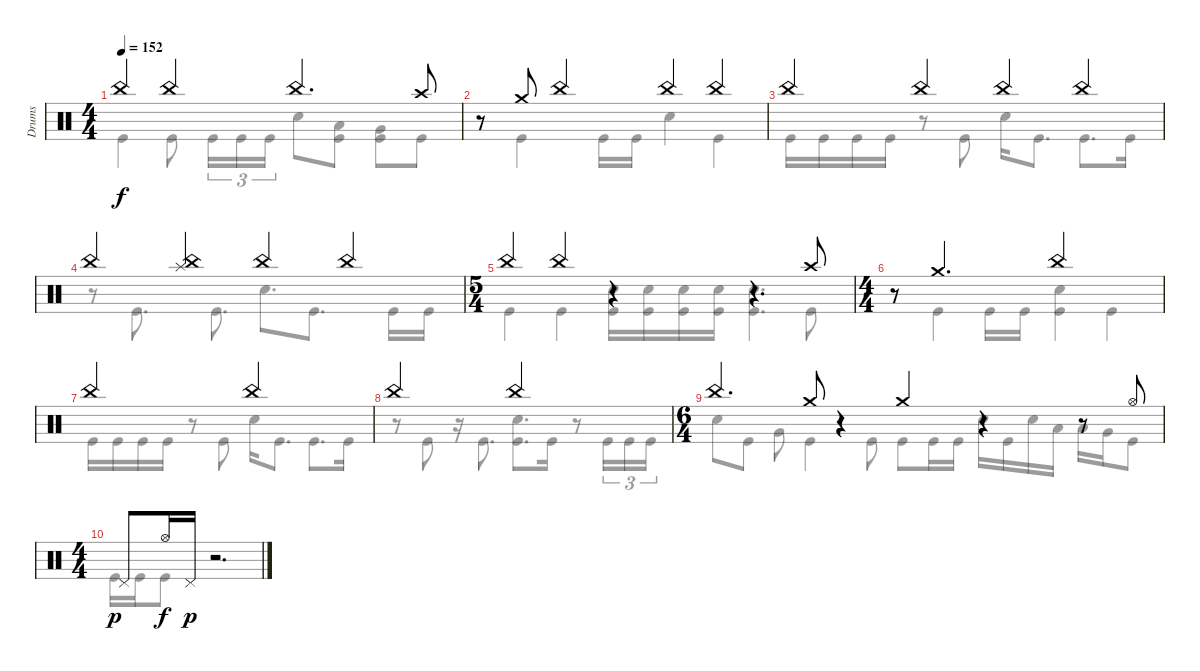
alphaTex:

\track ("Drums" "Drums") {instrument percussion}
\staff {score}
\articulation defaults
\voice
\ts (4 4)
\tempo 152
\clef neutral
\ks c "China (hit)".4{dy f} "China (hit)".4 "China (hit)".4{d} "Crash high (hit)".8
|
r.8 "Crash medium (hit)".8 "China (hit)".4 "China (hit)".4 "China (hit)".4 |
"China (hit)".4 "China (hit)".4 "China (hit)".4 "China (hit)".4 |
"China (hit)".4 ("China (hit)" "Splash (hit)").4 "China (hit)".4 "China (hit)".4 |
\ts (5 4)
"China (hit)".4 "China (hit)".4 r.4 r.4{d} "Crash high (hit)".8 |
\ts (4 4)
r.8 "Crash medium (hit)".4{d} "China (hit)".2 |
"China (hit)".2 "China (hit)".2 |
"China (hit)".2 "China (hit)".2 |
\ts (6 4)
"China (hit)".4{d} "Crash medium (hit)".8 r.4 "Crash medium (hit)".4 r.4 r.8 "Hi-Hat (open)".8 |
\ts (4 4)
"Pedal Hi-Hat (hit)".8{dy p} "Hi-Hat (open)".16{dy f} "Pedal Hi-Hat (hit)".16{dy p} r.2{d}
\voice
\clef neutral
\ottava regular
\simile none
\ks c "Kick (hit)".4{dy f} "Kick (hit)".8 "Kick (hit)".16{tu (3 2)} "Kick (hit)".16{tu (3 2)} "Kick (hit)".16{tu (3 2)} "Snare (hit) 2".8
("Low Tom (hit)" "Kick (hit)").8 ("Very Low Tom (hit)" "Kick (hit)").8 "Kick (hit)".8 |
r.8 "Kick (hit)".4 "Kick (hit)".16 "Kick (hit)".16 "Snare (hit) 2".4 "Kick (hit)".4 |
"Kick (hit)".16 "Kick (hit)".16 "Kick (hit)".16 "Kick (hit)".16 r.8 "Kick (hit)".8 "Snare (hit) 2".16 "Kick (hit)".8{d} "Kick (hit)".8{d} "Kick (hit)".16 |
r.8 "Kick (hit)".8{d} "Kick (hit)".8{d} "Snare (hit) 2".8{d} "Kick (hit)".8{d} "Kick (hit)".16 "Kick (hit)".16 |
"Kick (hit)".4 "Kick (hit)".4 ("Snare (hit) 2" "Kick (hit)").16 ("Snare (hit) 2" "Kick (hit)").16 ("Snare (hit) 2" "Kick (hit)").16 ("Snare (hit) 2" "Kick (hit)").16 ("Snare (hit) 2" "Kick (hit)").4{d} "Kick (hit)".8 |
r.8 "Kick (hit)".4 "Kick (hit)".16 "Kick (hit)".16 ("Snare (hit) 2" "Kick (hit)").4 "Kick (hit)".4 |
"Kick (hit)".16 "Kick (hit)".16 "Kick (hit)".16 "Kick (hit)".16 r.8 "Kick (hit)".8 "Snare (hit) 2".16 "Kick (hit)".8{d} "Kick (hit)".8{d} "Kick (hit)".16 |
r.8 "Kick (hit)".8 r.16 "Kick (hit)".8{d} ("Snare (hit) 2" "Kick (hit)").8{d} "Kick (hit)".16 r.8 "Kick (hit)".16{tu (3 2)} "Kick (hit)".16{tu (3 2)} "Kick (hit)".16{tu (3 2)} |
"Snare (hit) 2".8 "Kick (hit)".8 "Very Low Tom (hit)".8 "Kick (hit)".4 "Kick (hit)".8 "Kick (hit)".8 "Kick (hit)".16 "Kick (hit)".16 "Snare (hit) 2".16 "Kick (hit)".16 "Snare (hit) 2".16 "Low Tom (hit)".16 "Low Tom (hit)".16 "Very Low Tom (hit)".16 "Kick (hit)".8 |
"Kick (hit)".16 "Kick (hit)".16 "Kick (hit)".8 r.2{d}
